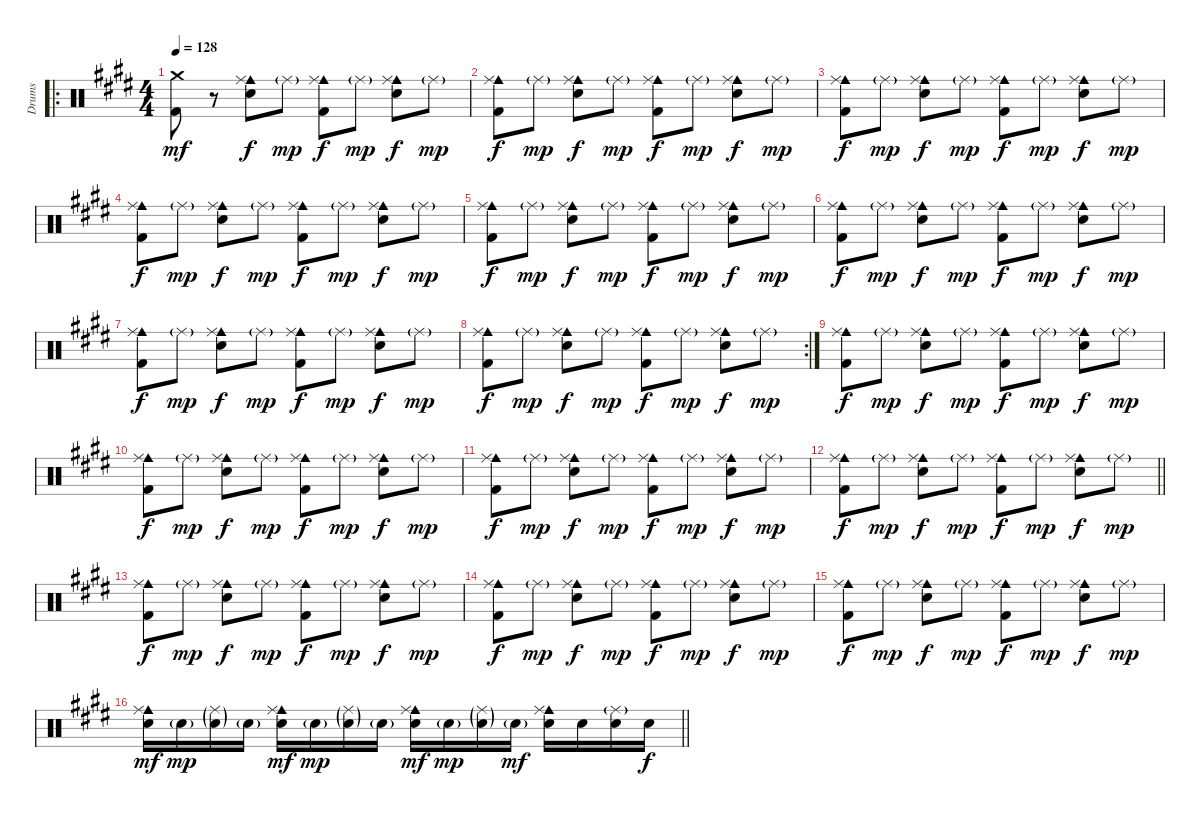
\track ("Drums" "Drums") {instrument percussion}
\staff {score}
\articulation defaults
\ro
\ts (4 4)
\tempo 128
\clef neutral
\ks c#minor
("Crash medium (hit)" "Kick (hit) 2").8{dy mf} r.8 ("Cowbell medium (hit)" "Ride (middle)" "Snare (hit) 2").8{dy f} "Ride (middle)"{g}.8{dy mp} ("Cowbell medium (hit)" "Ride (middle)" "Kick (hit) 2").8{dy f} "Ride (middle)"{g}.8{dy mp} ("Cowbell medium (hit)" "Ride (middle)" "Snare (hit) 2").8{dy f} "Ride (middle)"{g}.8{dy mp} |
\ks e
("Cowbell medium (hit)" "Ride (middle)" "Kick (hit) 2").8{dy f} "Ride (middle)"{g}.8{dy mp} ("Cowbell medium (hit)" "Ride (middle)" "Snare (hit) 2").8{dy f} "Ride (middle)"{g}.8{dy mp} ("Cowbell medium (hit)" "Ride (middle)" "Kick (hit) 2").8{dy f} "Ride (middle)"{g}.8{dy mp} ("Cowbell medium (hit)" "Ride (middle)" "Snare (hit) 2").8{dy f} "Ride (middle)"{g}.8{dy mp} |
\ks c#minor
("Cowbell medium (hit)" "Ride (middle)" "Kick (hit) 2").8{dy f} "Ride (middle)"{g}.8{dy mp} ("Cowbell medium (hit)" "Ride (middle)" "Snare (hit) 2").8{dy f} "Ride (middle)"{g}.8{dy mp} ("Cowbell medium (hit)" "Ride (middle)" "Kick (hit) 2").8{dy f} "Ride (middle)"{g}.8{dy mp} ("Cowbell medium (hit)" "Ride (middle)" "Snare (hit) 2").8{dy f} "Ride (middle)"{g}.8{dy mp} |
("Cowbell medium (hit)" "Ride (middle)" "Kick (hit) 2").8{dy f} "Ride (middle)"{g}.8{dy mp} ("Cowbell medium (hit)" "Ride (middle)" "Snare (hit) 2").8{dy f} "Ride (middle)"{g}.8{dy mp} ("Cowbell medium (hit)" "Ride (middle)" "Kick (hit) 2").8{dy f} "Ride (middle)"{g}.8{dy mp} ("Cowbell medium (hit)" "Ride (middle)" "Snare (hit) 2").8{dy f} "Ride (middle)"{g}.8{dy mp} |
\ks e
("Cowbell medium (hit)" "Ride (middle)" "Kick (hit) 2").8{dy f} "Ride (middle)"{g}.8{dy mp} ("Cowbell medium (hit)" "Ride (middle)" "Snare (hit) 2").8{dy f} "Ride (middle)"{g}.8{dy mp} ("Cowbell medium (hit)" "Ride (middle)" "Kick (hit) 2").8{dy f} "Ride (middle)"{g}.8{dy mp} ("Cowbell medium (hit)" "Ride (middle)" "Snare (hit) 2").8{dy f} "Ride (middle)"{g}.8{dy mp} |
\ks c#minor
("Cowbell medium (hit)" "Ride (middle)" "Kick (hit) 2").8{dy f} "Ride (middle)"{g}.8{dy mp} ("Cowbell medium (hit)" "Ride (middle)" "Snare (hit) 2").8{dy f} "Ride (middle)"{g}.8{dy mp} ("Cowbell medium (hit)" "Ride (middle)" "Kick (hit) 2").8{dy f} "Ride (middle)"{g}.8{dy mp} ("Cowbell medium (hit)" "Ride (middle)" "Snare (hit) 2").8{dy f} "Ride (middle)"{g}.8{dy mp} |
("Cowbell medium (hit)" "Ride (middle)" "Kick (hit) 2").8{dy f} "Ride (middle)"{g}.8{dy mp} ("Cowbell medium (hit)" "Ride (middle)" "Snare (hit) 2").8{dy f} "Ride (middle)"{g}.8{dy mp} ("Cowbell medium (hit)" "Ride (middle)" "Kick (hit) 2").8{dy f} "Ride (middle)"{g}.8{dy mp} ("Cowbell medium (hit)" "Ride (middle)" "Snare (hit) 2").8{dy f} "Ride (middle)"{g}.8{dy mp} |
\rc 2
("Cowbell medium (hit)" "Ride (middle)" "Kick (hit) 2").8{dy f} "Ride (middle)"{g}.8{dy mp} ("Cowbell medium (hit)" "Ride (middle)" "Snare (hit) 2").8{dy f} "Ride (middle)"{g}.8{dy mp} ("Cowbell medium (hit)" "Ride (middle)" "Kick (hit) 2").8{dy f} "Ride (middle)"{g}.8{dy mp} ("Cowbell medium (hit)" "Ride (middle)" "Snare (hit) 2").8{dy f} "Ride (middle)"{g}.8{dy mp} |
\ks e
("Cowbell medium (hit)" "Ride (middle)" "Kick (hit) 2").8{dy f} "Ride (middle)"{g}.8{dy mp} ("Cowbell medium (hit)" "Ride (middle)" "Snare (hit) 2").8{dy f} "Ride (middle)"{g}.8{dy mp} ("Cowbell medium (hit)" "Ride (middle)" "Kick (hit) 2").8{dy f} "Ride (middle)"{g}.8{dy mp} ("Cowbell medium (hit)" "Ride (middle)" "Snare (hit) 2").8{dy f} "Ride (middle)"{g}.8{dy mp} |
\ks c#minor
("Cowbell medium (hit)" "Ride (middle)" "Kick (hit) 2").8{dy f} "Ride (middle)"{g}.8{dy mp} ("Cowbell medium (hit)" "Ride (middle)" "Snare (hit) 2").8{dy f} "Ride (middle)"{g}.8{dy mp} ("Cowbell medium (hit)" "Ride (middle)" "Kick (hit) 2").8{dy f} "Ride (middle)"{g}.8{dy mp} ("Cowbell medium (hit)" "Ride (middle)" "Snare (hit) 2").8{dy f} "Ride (middle)"{g}.8{dy mp} |
("Cowbell medium (hit)" "Ride (middle)" "Kick (hit) 2").8{dy f} "Ride (middle)"{g}.8{dy mp} ("Cowbell medium (hit)" "Ride (middle)" "Snare (hit) 2").8{dy f} "Ride (middle)"{g}.8{dy mp} ("Cowbell medium (hit)" "Ride (middle)" "Kick (hit) 2").8{dy f} "Ride (middle)"{g}.8{dy mp} ("Cowbell medium (hit)" "Ride (middle)" "Snare (hit) 2").8{dy f} "Ride (middle)"{g}.8{dy mp} |
\barLineRight lightlight
("Cowbell medium (hit)" "Ride (middle)" "Kick (hit) 2").8{dy f} "Ride (middle)"{g}.8{dy mp} ("Cowbell medium (hit)" "Ride (middle)" "Snare (hit) 2").8{dy f} "Ride (middle)"{g}.8{dy mp} ("Cowbell medium (hit)" "Ride (middle)" "Kick (hit) 2").8{dy f} "Ride (middle)"{g}.8{dy mp} ("Cowbell medium (hit)" "Ride (middle)" "Snare (hit) 2").8{dy f} "Ride (middle)"{g}.8{dy mp} |
\ks e
("Cowbell medium (hit)" "Ride (middle)" "Kick (hit) 2").8{dy f} "Ride (middle)"{g}.8{dy mp} ("Cowbell medium (hit)" "Ride (middle)" "Snare (hit) 2").8{dy f} "Ride (middle)"{g}.8{dy mp} ("Cowbell medium (hit)" "Ride (middle)" "Kick (hit) 2").8{dy f} "Ride (middle)"{g}.8{dy mp} ("Cowbell medium (hit)" "Ride (middle)" "Snare (hit) 2").8{dy f} "Ride (middle)"{g}.8{dy mp} |
\ks c#minor
("Cowbell medium (hit)" "Ride (middle)" "Kick (hit) 2").8{dy f} "Ride (middle)"{g}.8{dy mp} ("Cowbell medium (hit)" "Ride (middle)" "Snare (hit) 2").8{dy f} "Ride (middle)"{g}.8{dy mp} ("Cowbell medium (hit)" "Ride (middle)" "Kick (hit) 2").8{dy f} "Ride (middle)"{g}.8{dy mp} ("Cowbell medium (hit)" "Ride (middle)" "Snare (hit) 2").8{dy f} "Ride (middle)"{g}.8{dy mp} |
("Cowbell medium (hit)" "Ride (middle)" "Kick (hit) 2").8{dy f} "Ride (middle)"{g}.8{dy mp} ("Cowbell medium (hit)" "Ride (middle)" "Snare (hit) 2").8{dy f} "Ride (middle)"{g}.8{dy mp} ("Cowbell medium (hit)" "Ride (middle)" "Kick (hit) 2").8{dy f} "Ride (middle)"{g}.8{dy mp} ("Cowbell medium (hit)" "Ride (middle)" "Snare (hit) 2").8{dy f} "Ride (middle)"{g}.8{dy mp} |
\barLineRight lightlight
("Cowbell medium (hit)" "Ride (middle)" "Snare (hit) 2").16{dy mf} "Snare (hit) 2"{g}.16{dy mp} ("Ride (middle)"{g} "Snare (hit) 2"{g}).16 "Snare (hit) 2"{g}.16 ("Cowbell medium (hit)" "Ride (middle)" "Snare (hit) 2").16{dy mf} "Snare (hit) 2"{g}.16{dy mp} ("Ride (middle)"{g} "Snare (hit) 2"{g}).16 "Snare (hit) 2"{g}.16 ("Cowbell medium (hit)" "Ride (middle)" "Snare (hit) 2").16{dy mf} "Snare (hit) 2"{g}.16{dy mp} ("Ride (middle)"{g} "Snare (hit) 2"{g}).16 "Snare (hit) 2"{g}.16{dy mf} ("Cowbell medium (hit)" "Ride (middle)" "Snare (hit) 2").16 "Snare (hit) 2".16 ("Ride (middle)"{g} "Snare (hit) 2").16 "Snare (hit) 2".16{dy f}
